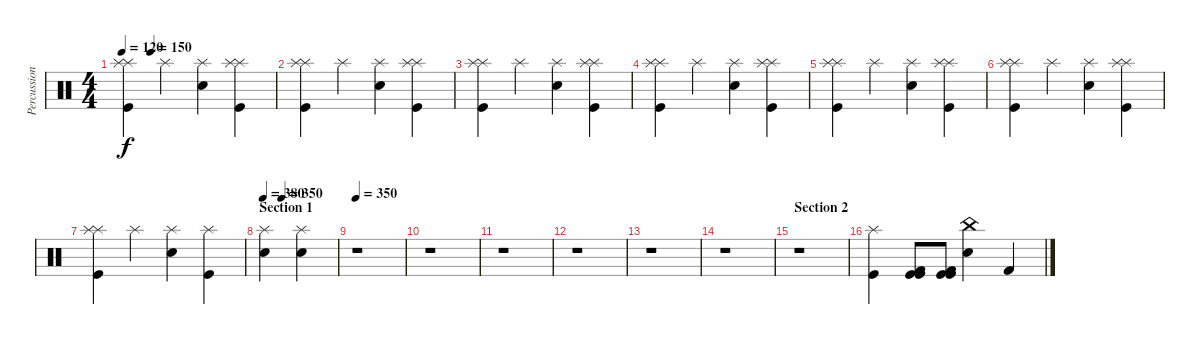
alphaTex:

\track ("Percussions" "Percussion") {instrument percussion}
\staff {score}
\articulation defaults
\ts (4 4)
\tempo 120
\tempo (150 0.1875)
\tempo 120
\clef neutral
\ks c
("Splash (hit)" "Splash (hit)" "Kick (hit)").4{dy f} "Splash (hit)".4 ("Splash (hit)" "Snare (hit) 2").4 ("Splash (hit)" "Splash (hit)" "Kick (hit)").4 |
("Splash (hit)" "Splash (hit)" "Kick (hit)").4 "Splash (hit)".4 ("Splash (hit)" "Snare (hit) 2").4 ("Splash (hit)" "Splash (hit)" "Kick (hit)").4 |
("Splash (hit)" "Splash (hit)" "Kick (hit)").4 "Splash (hit)".4 ("Splash (hit)" "Snare (hit) 2").4 ("Splash (hit)" "Splash (hit)" "Kick (hit)").4 |
("Splash (hit)" "Splash (hit)" "Kick (hit)").4 "Splash (hit)".4 ("Splash (hit)" "Snare (hit) 2").4 ("Splash (hit)" "Splash (hit)" "Kick (hit)").4 |
("Splash (hit)" "Splash (hit)" "Kick (hit)").4 "Splash (hit)".4 ("Splash (hit)" "Snare (hit) 2").4 ("Splash (hit)" "Splash (hit)" "Kick (hit)").4 |
("Splash (hit)" "Splash (hit)" "Kick (hit)").4 "Splash (hit)".4 ("Splash (hit)" "Snare (hit) 2").4 ("Splash (hit)" "Splash (hit)" "Kick (hit)").4 |
("Kick (hit)" "Splash (hit)" "Splash (hit)").4 "Splash (hit)".4 ("Splash (hit)" "Snare (hit) 2").4 ("Kick (hit)" "Splash (hit)").4 |
\section ("" "Section 1")
\tempo 380
\tempo (350 0.25)
("Splash (hit)" "Snare (hit) 2").4 ("Snare (hit) 2" "Splash (hit)").4 |
\tempo 350
r.1 |
r.1 |
r.1 |
r.1 |
r.1 |
r.1 |
\section ("" "Section 2")
r.1 |
("Splash (hit)" "Kick (hit)").4 ("Kick (hit) 2" "Kick (hit)" "Kick (hit)").8 ("Kick (hit) 2" "Kick (hit)" "Kick (hit)").8 ("China (hit)" "Snare (hit) 2").4 "Kick (hit) 2".4
